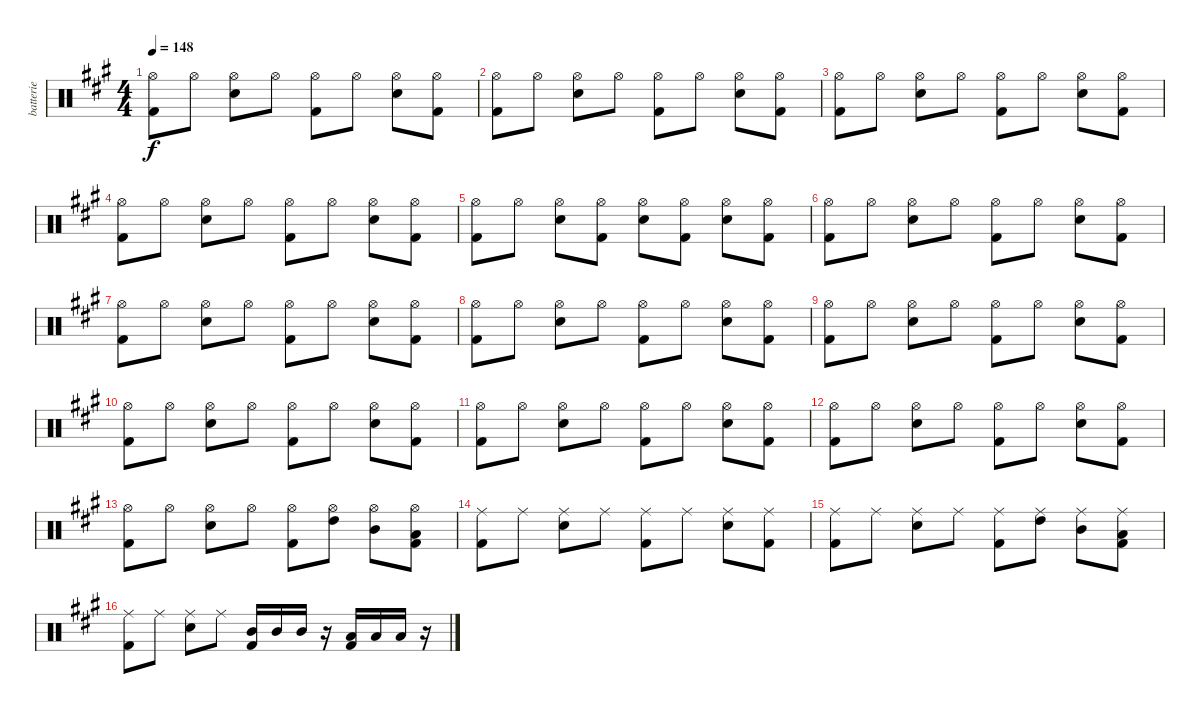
\track ("batterie" "batterie") {instrument percussion}
\staff {score}
\articulation defaults
\ts (4 4)
\tempo 148
\clef neutral
\ks a
("Kick (hit) 2" "Hi-Hat (open)").8{dy f} "Hi-Hat (open)".8 ("Snare (hit) 2" "Hi-Hat (open)").8 "Hi-Hat (open)".8 ("Kick (hit) 2" "Hi-Hat (open)").8 "Hi-Hat (open)".8 ("Snare (hit) 2" "Hi-Hat (open)").8 ("Kick (hit) 2" "Hi-Hat (open)").8 |
("Kick (hit) 2" "Hi-Hat (open)").8 "Hi-Hat (open)".8 ("Snare (hit) 2" "Hi-Hat (open)").8 "Hi-Hat (open)".8 ("Kick (hit) 2" "Hi-Hat (open)").8 "Hi-Hat (open)".8 ("Snare (hit) 2" "Hi-Hat (open)").8 ("Kick (hit) 2" "Hi-Hat (open)").8 |
("Kick (hit) 2" "Hi-Hat (open)").8 "Hi-Hat (open)".8 ("Snare (hit) 2" "Hi-Hat (open)").8 "Hi-Hat (open)".8 ("Kick (hit) 2" "Hi-Hat (open)").8 "Hi-Hat (open)".8 ("Snare (hit) 2" "Hi-Hat (open)").8 ("Kick (hit) 2" "Hi-Hat (open)").8 |
("Kick (hit) 2" "Hi-Hat (open)").8 "Hi-Hat (open)".8 ("Snare (hit) 2" "Hi-Hat (open)").8 "Hi-Hat (open)".8 ("Kick (hit) 2" "Hi-Hat (open)").8 "Hi-Hat (open)".8 ("Snare (hit) 2" "Hi-Hat (open)").8 ("Kick (hit) 2" "Hi-Hat (open)").8 |
("Kick (hit) 2" "Hi-Hat (open)").8 "Hi-Hat (open)".8 ("Snare (hit) 2" "Hi-Hat (open)").8 ("Kick (hit) 2" "Hi-Hat (open)").8 ("Snare (hit) 2" "Hi-Hat (open)").8 ("Kick (hit) 2" "Hi-Hat (open)").8 ("Snare (hit) 2" "Hi-Hat (open)").8 ("Kick (hit) 2" "Hi-Hat (open)").8 |
("Kick (hit) 2" "Hi-Hat (open)").8 "Hi-Hat (open)".8 ("Snare (hit) 2" "Hi-Hat (open)").8 "Hi-Hat (open)".8 ("Kick (hit) 2" "Hi-Hat (open)").8 "Hi-Hat (open)".8 ("Snare (hit) 2" "Hi-Hat (open)").8 ("Kick (hit) 2" "Hi-Hat (open)").8 |
("Kick (hit) 2" "Hi-Hat (open)").8 "Hi-Hat (open)".8 ("Snare (hit) 2" "Hi-Hat (open)").8 "Hi-Hat (open)".8 ("Kick (hit) 2" "Hi-Hat (open)").8 "Hi-Hat (open)".8 ("Snare (hit) 2" "Hi-Hat (open)").8 ("Kick (hit) 2" "Hi-Hat (open)").8 |
("Kick (hit) 2" "Hi-Hat (open)").8 "Hi-Hat (open)".8 ("Snare (hit) 2" "Hi-Hat (open)").8 "Hi-Hat (open)".8 ("Kick (hit) 2" "Hi-Hat (open)").8 "Hi-Hat (open)".8 ("Snare (hit) 2" "Hi-Hat (open)").8 ("Kick (hit) 2" "Hi-Hat (open)").8 |
("Kick (hit) 2" "Hi-Hat (open)").8 "Hi-Hat (open)".8 ("Snare (hit) 2" "Hi-Hat (open)").8 "Hi-Hat (open)".8 ("Kick (hit) 2" "Hi-Hat (open)").8 "Hi-Hat (open)".8 ("Snare (hit) 2" "Hi-Hat (open)").8 ("Kick (hit) 2" "Hi-Hat (open)").8 |
("Kick (hit) 2" "Hi-Hat (open)").8 "Hi-Hat (open)".8 ("Snare (hit) 2" "Hi-Hat (open)").8 "Hi-Hat (open)".8 ("Kick (hit) 2" "Hi-Hat (open)").8 "Hi-Hat (open)".8 ("Snare (hit) 2" "Hi-Hat (open)").8 ("Kick (hit) 2" "Hi-Hat (open)").8 |
("Kick (hit) 2" "Hi-Hat (open)").8 "Hi-Hat (open)".8 ("Snare (hit) 2" "Hi-Hat (open)").8 "Hi-Hat (open)".8 ("Kick (hit) 2" "Hi-Hat (open)").8 "Hi-Hat (open)".8 ("Snare (hit) 2" "Hi-Hat (open)").8 ("Kick (hit) 2" "Hi-Hat (open)").8 |
("Kick (hit) 2" "Hi-Hat (open)").8 "Hi-Hat (open)".8 ("Snare (hit) 2" "Hi-Hat (open)").8 "Hi-Hat (open)".8 ("Kick (hit) 2" "Hi-Hat (open)").8 "Hi-Hat (open)".8 ("Snare (hit) 2" "Hi-Hat (open)").8 ("Kick (hit) 2" "Hi-Hat (open)").8 |
("Kick (hit) 2" "Hi-Hat (open)").8 "Hi-Hat (open)".8 ("Snare (hit) 2" "Hi-Hat (open)").8 "Hi-Hat (open)".8 ("Kick (hit) 2" "Hi-Hat (open)").8 ("High Tom (hit)" "Hi-Hat (open)").8 ("Mid Tom (hit)" "Hi-Hat (open)").8 ("Kick (hit) 2" "Low Tom (hit)" "Hi-Hat (open)").8 |
("Kick (hit) 2" "Ride (middle)").8 "Ride (middle)".8 ("Snare (hit) 2" "Ride (middle)").8 "Ride (middle)".8 ("Kick (hit) 2" "Ride (middle)").8 "Ride (middle)".8 ("Snare (hit) 2" "Ride (middle)").8 ("Kick (hit) 2" "Ride (middle)").8 |
("Kick (hit) 2" "Ride (middle)").8 "Ride (middle)".8 ("Snare (hit) 2" "Ride (middle)").8 "Ride (middle)".8 ("Kick (hit) 2" "Ride (middle)").8 ("High Tom (hit)" "Ride (middle)").8 ("Mid Tom (hit)" "Ride (middle)").8 ("Kick (hit) 2" "Low Tom (hit)" "Ride (middle)").8 |
("Kick (hit) 2" "Ride (middle)").8 "Ride (middle)".8 ("Snare (hit) 2" "Ride (middle)").8 "Ride (middle)".8 ("Kick (hit) 2" "Mid Tom (hit)").16 "Mid Tom (hit)".16 "Mid Tom (hit)".16 r.16 ("Kick (hit) 2" "Low Tom (hit)").16 "Low Tom (hit)".16 "Low Tom (hit)".16 r.16
